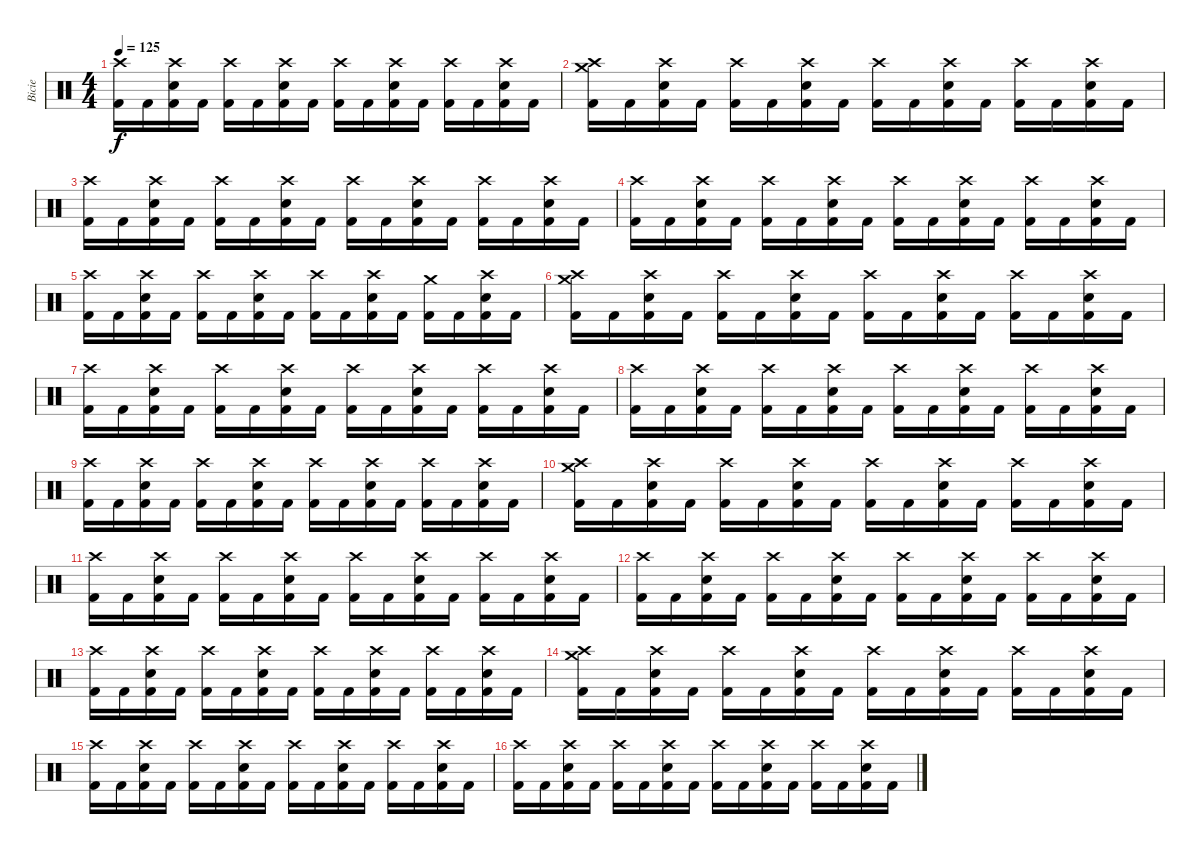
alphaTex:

\track ("Bicie" "Bicie") {instrument percussion}
\staff {score}
\articulation defaults
\ts (4 4)
\tempo 125
\clef neutral
\ks c
("Crash high (hit)" "Kick (hit) 2").16{dy f} "Kick (hit) 2".16 ("Crash high (hit)" "Snare (hit) 2" "Kick (hit) 2").16 "Kick (hit) 2".16 ("Crash high (hit)" "Kick (hit) 2").16 "Kick (hit) 2".16 ("Crash high (hit)" "Snare (hit) 2" "Kick (hit) 2").16 "Kick (hit) 2".16 ("Crash high (hit)" "Kick (hit) 2").16 "Kick (hit) 2".16 ("Crash high (hit)" "Snare (hit) 2" "Kick (hit) 2").16 "Kick (hit) 2".16 ("Crash high (hit)" "Kick (hit) 2").16 "Kick (hit) 2".16 ("Crash high (hit)" "Snare (hit) 2" "Kick (hit) 2").16 "Kick (hit) 2".16 |
("Crash high (hit)" "Crash medium (hit)" "Kick (hit) 2").16 "Kick (hit) 2".16 ("Crash high (hit)" "Snare (hit) 2" "Kick (hit) 2").16 "Kick (hit) 2".16 ("Crash high (hit)" "Kick (hit) 2").16 "Kick (hit) 2".16 ("Crash high (hit)" "Snare (hit) 2" "Kick (hit) 2").16 "Kick (hit) 2".16 ("Crash high (hit)" "Kick (hit) 2").16 "Kick (hit) 2".16 ("Crash high (hit)" "Snare (hit) 2" "Kick (hit) 2").16 "Kick (hit) 2".16 ("Crash high (hit)" "Kick (hit) 2").16 "Kick (hit) 2".16 ("Crash high (hit)" "Snare (hit) 2" "Kick (hit) 2").16 "Kick (hit) 2".16 |
("Crash high (hit)" "Kick (hit) 2").16 "Kick (hit) 2".16 ("Crash high (hit)" "Snare (hit) 2" "Kick (hit) 2").16 "Kick (hit) 2".16 ("Crash high (hit)" "Kick (hit) 2").16 "Kick (hit) 2".16 ("Crash high (hit)" "Snare (hit) 2" "Kick (hit) 2").16 "Kick (hit) 2".16 ("Crash high (hit)" "Kick (hit) 2").16 "Kick (hit) 2".16 ("Crash high (hit)" "Snare (hit) 2" "Kick (hit) 2").16 "Kick (hit) 2".16 ("Crash high (hit)" "Kick (hit) 2").16 "Kick (hit) 2".16 ("Crash high (hit)" "Snare (hit) 2" "Kick (hit) 2").16 "Kick (hit) 2".16 |
("Crash high (hit)" "Kick (hit) 2").16 "Kick (hit) 2".16 ("Crash high (hit)" "Snare (hit) 2" "Kick (hit) 2").16 "Kick (hit) 2".16 ("Crash high (hit)" "Kick (hit) 2").16 "Kick (hit) 2".16 ("Crash high (hit)" "Snare (hit) 2" "Kick (hit) 2").16 "Kick (hit) 2".16 ("Crash high (hit)" "Kick (hit) 2").16 "Kick (hit) 2".16 ("Crash high (hit)" "Snare (hit) 2" "Kick (hit) 2").16 "Kick (hit) 2".16 ("Crash high (hit)" "Kick (hit) 2").16 "Kick (hit) 2".16 ("Crash high (hit)" "Snare (hit) 2" "Kick (hit) 2").16 "Kick (hit) 2".16 |
("Crash high (hit)" "Kick (hit) 2").16 "Kick (hit) 2".16 ("Crash high (hit)" "Snare (hit) 2" "Kick (hit) 2").16 "Kick (hit) 2".16 ("Crash high (hit)" "Kick (hit) 2").16 "Kick (hit) 2".16 ("Crash high (hit)" "Snare (hit) 2" "Kick (hit) 2").16 "Kick (hit) 2".16 ("Crash high (hit)" "Kick (hit) 2").16 "Kick (hit) 2".16 ("Crash high (hit)" "Snare (hit) 2" "Kick (hit) 2").16 "Kick (hit) 2".16 ("Crash medium (hit)" "Kick (hit) 2").16 "Kick (hit) 2".16 ("Crash high (hit)" "Snare (hit) 2" "Kick (hit) 2").16 "Kick (hit) 2".16 |
("Crash high (hit)" "Crash medium (hit)" "Kick (hit) 2").16 "Kick (hit) 2".16 ("Crash high (hit)" "Snare (hit) 2" "Kick (hit) 2").16 "Kick (hit) 2".16 ("Crash high (hit)" "Kick (hit) 2").16 "Kick (hit) 2".16 ("Crash high (hit)" "Snare (hit) 2" "Kick (hit) 2").16 "Kick (hit) 2".16 ("Crash high (hit)" "Kick (hit) 2").16 "Kick (hit) 2".16 ("Crash high (hit)" "Snare (hit) 2" "Kick (hit) 2").16 "Kick (hit) 2".16 ("Crash high (hit)" "Kick (hit) 2").16 "Kick (hit) 2".16 ("Crash high (hit)" "Snare (hit) 2" "Kick (hit) 2").16 "Kick (hit) 2".16 |
("Crash high (hit)" "Kick (hit) 2").16 "Kick (hit) 2".16 ("Crash high (hit)" "Snare (hit) 2" "Kick (hit) 2").16 "Kick (hit) 2".16 ("Crash high (hit)" "Kick (hit) 2").16 "Kick (hit) 2".16 ("Crash high (hit)" "Snare (hit) 2" "Kick (hit) 2").16 "Kick (hit) 2".16 ("Crash high (hit)" "Kick (hit) 2").16 "Kick (hit) 2".16 ("Crash high (hit)" "Snare (hit) 2" "Kick (hit) 2").16 "Kick (hit) 2".16 ("Crash high (hit)" "Kick (hit) 2").16 "Kick (hit) 2".16 ("Crash high (hit)" "Snare (hit) 2" "Kick (hit) 2").16 "Kick (hit) 2".16 |
("Crash high (hit)" "Kick (hit) 2").16 "Kick (hit) 2".16 ("Crash high (hit)" "Snare (hit) 2" "Kick (hit) 2").16 "Kick (hit) 2".16 ("Crash high (hit)" "Kick (hit) 2").16 "Kick (hit) 2".16 ("Crash high (hit)" "Snare (hit) 2" "Kick (hit) 2").16 "Kick (hit) 2".16 ("Crash high (hit)" "Kick (hit) 2").16 "Kick (hit) 2".16 ("Crash high (hit)" "Snare (hit) 2" "Kick (hit) 2").16 "Kick (hit) 2".16 ("Crash high (hit)" "Kick (hit) 2").16 "Kick (hit) 2".16 ("Crash high (hit)" "Snare (hit) 2" "Kick (hit) 2").16 "Kick (hit) 2".16 |
("Crash high (hit)" "Kick (hit) 2").16 "Kick (hit) 2".16 ("Crash high (hit)" "Snare (hit) 2" "Kick (hit) 2").16 "Kick (hit) 2".16 ("Crash high (hit)" "Kick (hit) 2").16 "Kick (hit) 2".16 ("Crash high (hit)" "Snare (hit) 2" "Kick (hit) 2").16 "Kick (hit) 2".16 ("Crash high (hit)" "Kick (hit) 2").16 "Kick (hit) 2".16 ("Crash high (hit)" "Snare (hit) 2" "Kick (hit) 2").16 "Kick (hit) 2".16 ("Crash high (hit)" "Kick (hit) 2").16 "Kick (hit) 2".16 ("Crash high (hit)" "Snare (hit) 2" "Kick (hit) 2").16 "Kick (hit) 2".16 |
("Crash high (hit)" "Crash medium (hit)" "Kick (hit) 2").16 "Kick (hit) 2".16 ("Crash high (hit)" "Snare (hit) 2" "Kick (hit) 2").16 "Kick (hit) 2".16 ("Crash high (hit)" "Kick (hit) 2").16 "Kick (hit) 2".16 ("Crash high (hit)" "Snare (hit) 2" "Kick (hit) 2").16 "Kick (hit) 2".16 ("Crash high (hit)" "Kick (hit) 2").16 "Kick (hit) 2".16 ("Crash high (hit)" "Snare (hit) 2" "Kick (hit) 2").16 "Kick (hit) 2".16 ("Crash high (hit)" "Kick (hit) 2").16 "Kick (hit) 2".16 ("Crash high (hit)" "Snare (hit) 2" "Kick (hit) 2").16 "Kick (hit) 2".16 |
("Crash high (hit)" "Kick (hit) 2").16 "Kick (hit) 2".16 ("Crash high (hit)" "Snare (hit) 2" "Kick (hit) 2").16 "Kick (hit) 2".16 ("Crash high (hit)" "Kick (hit) 2").16 "Kick (hit) 2".16 ("Crash high (hit)" "Snare (hit) 2" "Kick (hit) 2").16 "Kick (hit) 2".16 ("Crash high (hit)" "Kick (hit) 2").16 "Kick (hit) 2".16 ("Crash high (hit)" "Snare (hit) 2" "Kick (hit) 2").16 "Kick (hit) 2".16 ("Crash high (hit)" "Kick (hit) 2").16 "Kick (hit) 2".16 ("Crash high (hit)" "Snare (hit) 2" "Kick (hit) 2").16 "Kick (hit) 2".16 |
("Crash high (hit)" "Kick (hit) 2").16 "Kick (hit) 2".16 ("Crash high (hit)" "Snare (hit) 2" "Kick (hit) 2").16 "Kick (hit) 2".16 ("Crash high (hit)" "Kick (hit) 2").16 "Kick (hit) 2".16 ("Crash high (hit)" "Snare (hit) 2" "Kick (hit) 2").16 "Kick (hit) 2".16 ("Crash high (hit)" "Kick (hit) 2").16 "Kick (hit) 2".16 ("Crash high (hit)" "Snare (hit) 2" "Kick (hit) 2").16 "Kick (hit) 2".16 ("Crash high (hit)" "Kick (hit) 2").16 "Kick (hit) 2".16 ("Crash high (hit)" "Snare (hit) 2" "Kick (hit) 2").16 "Kick (hit) 2".16 |
("Crash high (hit)" "Kick (hit) 2").16 "Kick (hit) 2".16 ("Crash high (hit)" "Snare (hit) 2" "Kick (hit) 2").16 "Kick (hit) 2".16 ("Crash high (hit)" "Kick (hit) 2").16 "Kick (hit) 2".16 ("Crash high (hit)" "Snare (hit) 2" "Kick (hit) 2").16 "Kick (hit) 2".16 ("Crash high (hit)" "Kick (hit) 2").16 "Kick (hit) 2".16 ("Crash high (hit)" "Snare (hit) 2" "Kick (hit) 2").16 "Kick (hit) 2".16 ("Crash high (hit)" "Kick (hit) 2").16 "Kick (hit) 2".16 ("Crash high (hit)" "Snare (hit) 2" "Kick (hit) 2").16 "Kick (hit) 2".16 |
("Crash high (hit)" "Crash medium (hit)" "Kick (hit) 2").16 "Kick (hit) 2".16 ("Crash high (hit)" "Snare (hit) 2" "Kick (hit) 2").16 "Kick (hit) 2".16 ("Crash high (hit)" "Kick (hit) 2").16 "Kick (hit) 2".16 ("Crash high (hit)" "Snare (hit) 2" "Kick (hit) 2").16 "Kick (hit) 2".16 ("Crash high (hit)" "Kick (hit) 2").16 "Kick (hit) 2".16 ("Crash high (hit)" "Snare (hit) 2" "Kick (hit) 2").16 "Kick (hit) 2".16 ("Crash high (hit)" "Kick (hit) 2").16 "Kick (hit) 2".16 ("Crash high (hit)" "Snare (hit) 2" "Kick (hit) 2").16 "Kick (hit) 2".16 |
("Crash high (hit)" "Kick (hit) 2").16 "Kick (hit) 2".16 ("Crash high (hit)" "Snare (hit) 2" "Kick (hit) 2").16 "Kick (hit) 2".16 ("Crash high (hit)" "Kick (hit) 2").16 "Kick (hit) 2".16 ("Crash high (hit)" "Snare (hit) 2" "Kick (hit) 2").16 "Kick (hit) 2".16 ("Crash high (hit)" "Kick (hit) 2").16 "Kick (hit) 2".16 ("Crash high (hit)" "Snare (hit) 2" "Kick (hit) 2").16 "Kick (hit) 2".16 ("Crash high (hit)" "Kick (hit) 2").16 "Kick (hit) 2".16 ("Crash high (hit)" "Snare (hit) 2" "Kick (hit) 2").16 "Kick (hit) 2".16 |
("Crash high (hit)" "Kick (hit) 2").16 "Kick (hit) 2".16 ("Crash high (hit)" "Snare (hit) 2" "Kick (hit) 2").16 "Kick (hit) 2".16 ("Crash high (hit)" "Kick (hit) 2").16 "Kick (hit) 2".16 ("Crash high (hit)" "Snare (hit) 2" "Kick (hit) 2").16 "Kick (hit) 2".16 ("Crash high (hit)" "Kick (hit) 2").16 "Kick (hit) 2".16 ("Crash high (hit)" "Snare (hit) 2" "Kick (hit) 2").16 "Kick (hit) 2".16 ("Crash high (hit)" "Kick (hit) 2").16 "Kick (hit) 2".16 ("Crash high (hit)" "Snare (hit) 2" "Kick (hit) 2").16 "Kick (hit) 2".16
